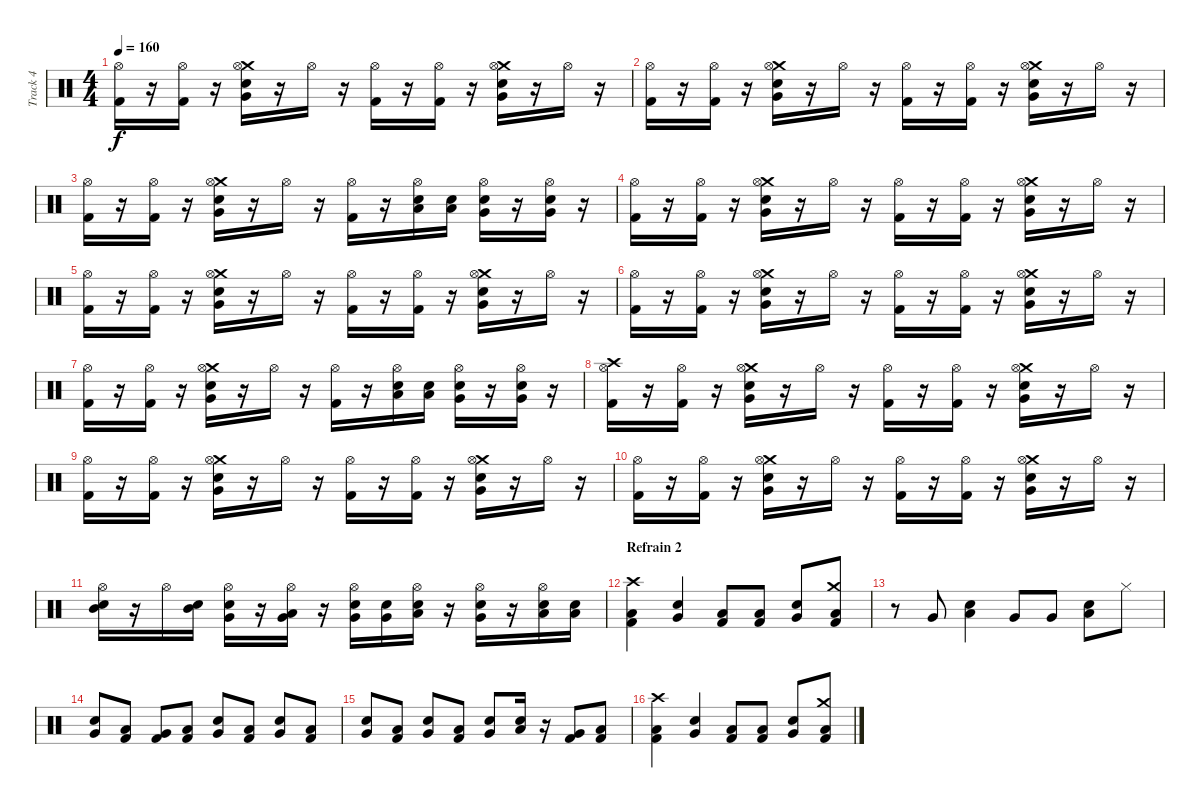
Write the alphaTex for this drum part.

\track ("Track 4" "Track 4") {instrument percussion}
\staff {score}
\articulation defaults
\ts (4 4)
\tempo 160
\clef neutral
\ks c
("Kick (hit) 2" "Hi-Hat (open)").16{dy f} r.16 ("Kick (hit) 2" "Hi-Hat (open)").16 r.16 ("Very Low Tom (hit)" "Electric Snare (hit)" "Crash medium (hit)" "Hi-Hat (open)").16 r.16 "Hi-Hat (open)".16 r.16 ("Kick (hit) 2" "Hi-Hat (open)").16 r.16 ("Kick (hit) 2" "Hi-Hat (open)").16 r.16 ("Very Low Tom (hit)" "Electric Snare (hit)" "Crash medium (hit)" "Hi-Hat (open)").16 r.16 "Hi-Hat (open)".16 r.16 |
("Kick (hit) 2" "Hi-Hat (open)").16 r.16 ("Kick (hit) 2" "Hi-Hat (open)").16 r.16 ("Very Low Tom (hit)" "Electric Snare (hit)" "Crash medium (hit)" "Hi-Hat (open)").16 r.16 "Hi-Hat (open)".16 r.16 ("Kick (hit) 2" "Hi-Hat (open)").16 r.16 ("Kick (hit) 2" "Hi-Hat (open)").16 r.16 ("Very Low Tom (hit)" "Electric Snare (hit)" "Crash medium (hit)" "Hi-Hat (open)").16 r.16 "Hi-Hat (open)".16 r.16 |
("Kick (hit) 2" "Hi-Hat (open)").16 r.16 ("Kick (hit) 2" "Hi-Hat (open)").16 r.16 ("Very Low Tom (hit)" "Electric Snare (hit)" "Crash medium (hit)" "Hi-Hat (open)").16 r.16 "Hi-Hat (open)".16 r.16 ("Kick (hit) 2" "Hi-Hat (open)").16 r.16 ("Electric Snare (hit)" "Hi-Hat (open)" "Low Tom (hit)").16 ("Low Tom (hit)" "Electric Snare (hit)").16 ("Very Low Tom (hit)" "Snare (hit) 2" "Hi-Hat (open)").16 r.16 ("Electric Snare (hit)" "Hi-Hat (open)" "Very Low Tom (hit)").16 r.16 |
("Kick (hit) 2" "Hi-Hat (open)").16 r.16 ("Kick (hit) 2" "Hi-Hat (open)").16 r.16 ("Very Low Tom (hit)" "Electric Snare (hit)" "Crash medium (hit)" "Hi-Hat (open)").16 r.16 "Hi-Hat (open)".16 r.16 ("Kick (hit) 2" "Hi-Hat (open)").16 r.16 ("Kick (hit) 2" "Hi-Hat (open)").16 r.16 ("Very Low Tom (hit)" "Electric Snare (hit)" "Crash medium (hit)" "Hi-Hat (open)").16 r.16 "Hi-Hat (open)".16 r.16 |
("Kick (hit) 2" "Hi-Hat (open)").16 r.16 ("Kick (hit) 2" "Hi-Hat (open)").16 r.16 ("Very Low Tom (hit)" "Electric Snare (hit)" "Crash medium (hit)" "Hi-Hat (open)").16 r.16 "Hi-Hat (open)".16 r.16 ("Kick (hit) 2" "Hi-Hat (open)").16 r.16 ("Kick (hit) 2" "Hi-Hat (open)").16 r.16 ("Very Low Tom (hit)" "Electric Snare (hit)" "Crash medium (hit)" "Hi-Hat (open)").16 r.16 "Hi-Hat (open)".16 r.16 |
("Kick (hit) 2" "Hi-Hat (open)").16 r.16 ("Kick (hit) 2" "Hi-Hat (open)").16 r.16 ("Very Low Tom (hit)" "Electric Snare (hit)" "Crash medium (hit)" "Hi-Hat (open)").16 r.16 "Hi-Hat (open)".16 r.16 ("Kick (hit) 2" "Hi-Hat (open)").16 r.16 ("Kick (hit) 2" "Hi-Hat (open)").16 r.16 ("Very Low Tom (hit)" "Electric Snare (hit)" "Crash medium (hit)" "Hi-Hat (open)").16 r.16 "Hi-Hat (open)".16 r.16 |
("Kick (hit) 2" "Hi-Hat (open)").16 r.16 ("Kick (hit) 2" "Hi-Hat (open)").16 r.16 ("Very Low Tom (hit)" "Electric Snare (hit)" "Crash medium (hit)" "Hi-Hat (open)").16 r.16 "Hi-Hat (open)".16 r.16 ("Kick (hit) 2" "Hi-Hat (open)").16 r.16 ("Electric Snare (hit)" "Hi-Hat (open)" "Low Tom (hit)").16 ("Low Tom (hit)" "Electric Snare (hit)").16 ("Very Low Tom (hit)" "Snare (hit) 2" "Hi-Hat (open)").16 r.16 ("Electric Snare (hit)" "Hi-Hat (open)" "Very Low Tom (hit)").16 r.16 |
("Kick (hit) 2" "Hi-Hat (open)" "Crash high (hit)").16 r.16 ("Kick (hit) 2" "Hi-Hat (open)").16 r.16 ("Very Low Tom (hit)" "Electric Snare (hit)" "Crash medium (hit)" "Hi-Hat (open)").16 r.16 "Hi-Hat (open)".16 r.16 ("Kick (hit) 2" "Hi-Hat (open)").16 r.16 ("Kick (hit) 2" "Hi-Hat (open)").16 r.16 ("Very Low Tom (hit)" "Electric Snare (hit)" "Crash medium (hit)" "Hi-Hat (open)").16 r.16 "Hi-Hat (open)".16 r.16 |
("Kick (hit) 2" "Hi-Hat (open)").16 r.16 ("Kick (hit) 2" "Hi-Hat (open)").16 r.16 ("Very Low Tom (hit)" "Electric Snare (hit)" "Crash medium (hit)" "Hi-Hat (open)").16 r.16 "Hi-Hat (open)".16 r.16 ("Kick (hit) 2" "Hi-Hat (open)").16 r.16 ("Kick (hit) 2" "Hi-Hat (open)").16 r.16 ("Very Low Tom (hit)" "Electric Snare (hit)" "Crash medium (hit)" "Hi-Hat (open)").16 r.16 "Hi-Hat (open)".16 r.16 |
("Kick (hit) 2" "Hi-Hat (open)").16 r.16 ("Kick (hit) 2" "Hi-Hat (open)").16 r.16 ("Very Low Tom (hit)" "Electric Snare (hit)" "Crash medium (hit)" "Hi-Hat (open)").16 r.16 "Hi-Hat (open)".16 r.16 ("Kick (hit) 2" "Hi-Hat (open)").16 r.16 ("Kick (hit) 2" "Hi-Hat (open)").16 r.16 ("Very Low Tom (hit)" "Electric Snare (hit)" "Crash medium (hit)" "Hi-Hat (open)").16 r.16 "Hi-Hat (open)".16 r.16 |
("Electric Snare (hit)" "Hi-Hat (open)" "Mid Tom (hit)").16 r.16 "Hi-Hat (open)".16 ("Electric Snare (hit)" "Mid Tom (hit)").16 ("Very Low Tom (hit)" "Electric Snare (hit)" "Hi-Hat (open)").16 r.16 ("Very Low Tom (hit)" "Hi-Hat (open)" "Low Floor Tom (hit)").16 r.16 ("Very Low Tom (hit)" "Hi-Hat (open)" "Electric Snare (hit)").16 ("Electric Snare (hit)" "Very Low Tom (hit)").16 ("Low Floor Tom (hit)" "Hi-Hat (open)" "Electric Snare (hit)").16 r.16 ("Very Low Tom (hit)" "Electric Snare (hit)" "Hi-Hat (open)").16 r.16 ("Low Floor Tom (hit)" "Hi-Hat (open)" "Electric Snare (hit)").16 ("Low Floor Tom (hit)" "Electric Snare (hit)").16 |
\section ("" "Refrain 2")
("Low Tom (hit)" "Crash high (hit)" "Kick (hit) 2").4 ("Electric Snare (hit)" "Very Low Tom (hit)").4 ("Low Tom (hit)" "Kick (hit) 2").8 ("Low Tom (hit)" "Kick (hit) 2").8 ("Electric Snare (hit)" "Very Low Tom (hit)").8 ("Low Tom (hit)" "Kick (hit) 2" "Crash medium (hit)").8 |
r.8 "Very Low Tom (hit)".8 ("Low Tom (hit)" "Electric Snare (hit)").4 "Very Low Tom (hit)".8 "Very Low Tom (hit)".8 ("Low Tom (hit)" "Electric Snare (hit)").8 "Hi-Hat (closed)".8 |
("Very Low Tom (hit)" "Snare (hit) 2").8 ("Low Tom (hit)" "Kick (hit) 2").8 ("Very Low Tom (hit)" "Kick (hit) 2").8 ("Low Tom (hit)" "Kick (hit) 2").8 ("Very Low Tom (hit)" "Snare (hit) 2").8 ("Low Tom (hit)" "Kick (hit) 2").8 ("Very Low Tom (hit)" "Snare (hit) 2").8 ("Low Tom (hit)" "Kick (hit) 2").8 |
("Very Low Tom (hit)" "Snare (hit) 2").8 ("Low Tom (hit)" "Kick (hit) 2").8 ("Very Low Tom (hit)" "Snare (hit) 2").8 ("Low Tom (hit)" "Kick (hit) 2").8 ("Very Low Tom (hit)" "Snare (hit) 2").8 ("Low Tom (hit)" "Snare (hit) 2").16 r.16 ("Very Low Tom (hit)" "Kick (hit) 2").8 ("Low Tom (hit)" "Kick (hit) 2").8 |
("Low Tom (hit)" "Crash high (hit)" "Kick (hit) 2").4 ("Electric Snare (hit)" "Very Low Tom (hit)").4 ("Low Tom (hit)" "Kick (hit) 2").8 ("Low Tom (hit)" "Kick (hit) 2").8 ("Electric Snare (hit)" "Very Low Tom (hit)").8 ("Low Tom (hit)" "Kick (hit) 2" "Crash medium (hit)").8
